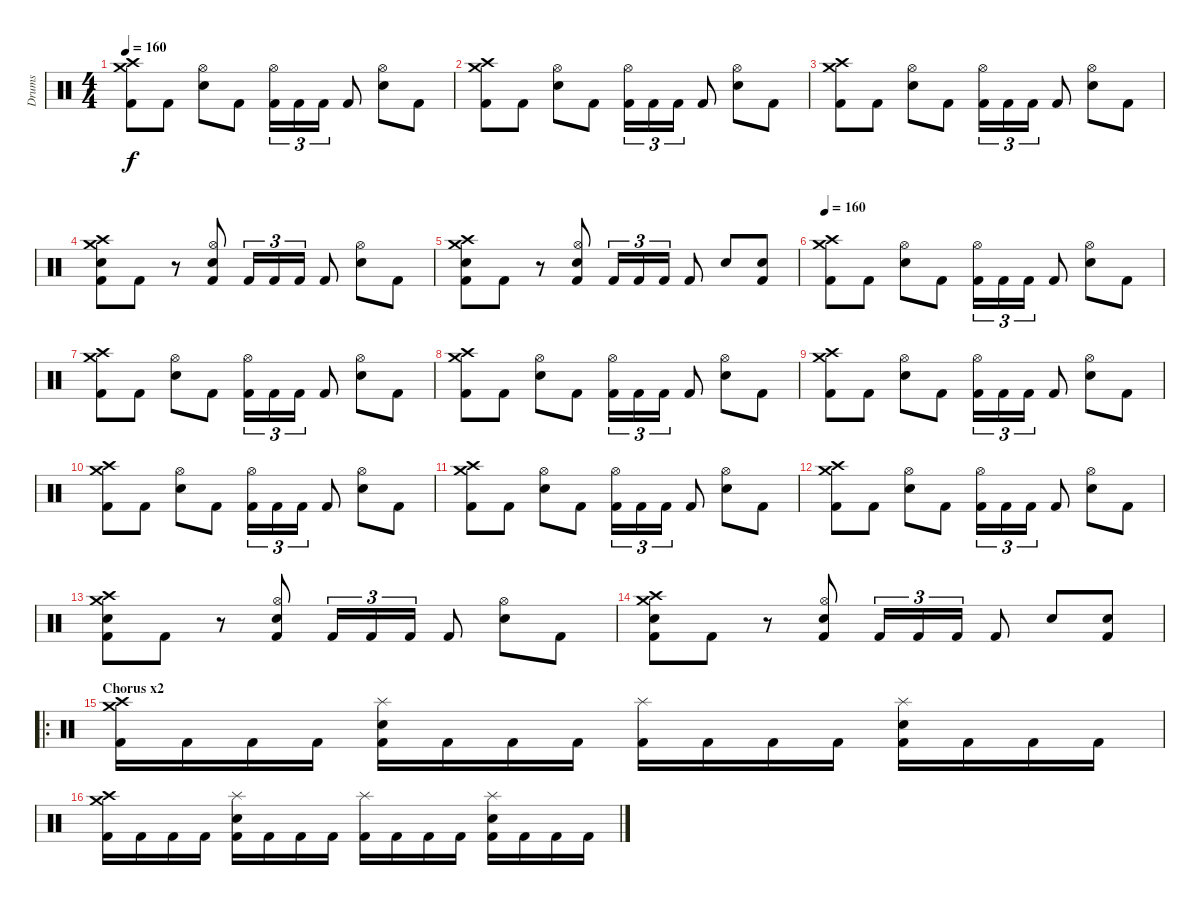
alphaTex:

\track ("Drums" "Drums") {instrument percussion}
\staff {score}
\articulation defaults
\ts (4 4)
\tempo 160
\clef neutral
\ks c
("Crash medium (hit)" "Crash high (hit)" "Kick (hit) 2").8{dy f} "Kick (hit) 2".8 ("Hi-Hat (open)" "Electric Snare (hit)").8 "Kick (hit) 2".8 ("Hi-Hat (open)" "Kick (hit) 2").16{tu (3 2)} "Kick (hit) 2".16{tu (3 2)} "Kick (hit) 2".16{tu (3 2)} "Kick (hit) 2".8 ("Hi-Hat (open)" "Electric Snare (hit)").8 "Kick (hit) 2".8 |
("Crash medium (hit)" "Crash high (hit)" "Kick (hit) 2").8 "Kick (hit) 2".8 ("Hi-Hat (open)" "Electric Snare (hit)").8 "Kick (hit) 2".8 ("Hi-Hat (open)" "Kick (hit) 2").16{tu (3 2)} "Kick (hit) 2".16{tu (3 2)} "Kick (hit) 2".16{tu (3 2)} "Kick (hit) 2".8 ("Hi-Hat (open)" "Electric Snare (hit)").8 "Kick (hit) 2".8 |
("Crash medium (hit)" "Crash high (hit)" "Kick (hit) 2").8 "Kick (hit) 2".8 ("Hi-Hat (open)" "Electric Snare (hit)").8 "Kick (hit) 2".8 ("Hi-Hat (open)" "Kick (hit) 2").16{tu (3 2)} "Kick (hit) 2".16{tu (3 2)} "Kick (hit) 2".16{tu (3 2)} "Kick (hit) 2".8 ("Hi-Hat (open)" "Electric Snare (hit)").8 "Kick (hit) 2".8 |
("Crash medium (hit)" "Crash high (hit)" "Electric Snare (hit)" "Kick (hit) 2").8 "Kick (hit) 2".8 r.8 ("Hi-Hat (open)" "Electric Snare (hit)" "Kick (hit) 2").8 "Kick (hit) 2".16{tu (3 2)} "Kick (hit) 2".16{tu (3 2)} "Kick (hit) 2".16{tu (3 2)} "Kick (hit) 2".8 ("Hi-Hat (open)" "Electric Snare (hit)").8 "Kick (hit) 2".8 |
("Crash medium (hit)" "Crash high (hit)" "Electric Snare (hit)" "Kick (hit) 2").8 "Kick (hit) 2".8 r.8 ("Hi-Hat (open)" "Electric Snare (hit)" "Kick (hit) 2").8 "Kick (hit) 2".16{tu (3 2)} "Kick (hit) 2".16{tu (3 2)} "Kick (hit) 2".16{tu (3 2)} "Kick (hit) 2".8 "Electric Snare (hit)".8 ("Electric Snare (hit)" "Kick (hit) 2").8 |
\tempo 160
("Crash medium (hit)" "Crash high (hit)" "Kick (hit) 2").8 "Kick (hit) 2".8 ("Hi-Hat (open)" "Electric Snare (hit)").8 "Kick (hit) 2".8 ("Hi-Hat (open)" "Kick (hit) 2").16{tu (3 2)} "Kick (hit) 2".16{tu (3 2)} "Kick (hit) 2".16{tu (3 2)} "Kick (hit) 2".8 ("Hi-Hat (open)" "Electric Snare (hit)").8 "Kick (hit) 2".8 |
("Crash medium (hit)" "Crash high (hit)" "Kick (hit) 2").8 "Kick (hit) 2".8 ("Hi-Hat (open)" "Electric Snare (hit)").8 "Kick (hit) 2".8 ("Hi-Hat (open)" "Kick (hit) 2").16{tu (3 2)} "Kick (hit) 2".16{tu (3 2)} "Kick (hit) 2".16{tu (3 2)} "Kick (hit) 2".8 ("Hi-Hat (open)" "Electric Snare (hit)").8 "Kick (hit) 2".8 |
("Crash medium (hit)" "Crash high (hit)" "Kick (hit) 2").8 "Kick (hit) 2".8 ("Hi-Hat (open)" "Electric Snare (hit)").8 "Kick (hit) 2".8 ("Hi-Hat (open)" "Kick (hit) 2").16{tu (3 2)} "Kick (hit) 2".16{tu (3 2)} "Kick (hit) 2".16{tu (3 2)} "Kick (hit) 2".8 ("Hi-Hat (open)" "Electric Snare (hit)").8 "Kick (hit) 2".8 |
("Crash medium (hit)" "Crash high (hit)" "Kick (hit) 2").8 "Kick (hit) 2".8 ("Hi-Hat (open)" "Electric Snare (hit)").8 "Kick (hit) 2".8 ("Hi-Hat (open)" "Kick (hit) 2").16{tu (3 2)} "Kick (hit) 2".16{tu (3 2)} "Kick (hit) 2".16{tu (3 2)} "Kick (hit) 2".8 ("Hi-Hat (open)" "Electric Snare (hit)").8 "Kick (hit) 2".8 |
("Crash medium (hit)" "Crash high (hit)" "Kick (hit) 2").8 "Kick (hit) 2".8 ("Hi-Hat (open)" "Electric Snare (hit)").8 "Kick (hit) 2".8 ("Hi-Hat (open)" "Kick (hit) 2").16{tu (3 2)} "Kick (hit) 2".16{tu (3 2)} "Kick (hit) 2".16{tu (3 2)} "Kick (hit) 2".8 ("Hi-Hat (open)" "Electric Snare (hit)").8 "Kick (hit) 2".8 |
("Crash medium (hit)" "Crash high (hit)" "Kick (hit) 2").8 "Kick (hit) 2".8 ("Hi-Hat (open)" "Electric Snare (hit)").8 "Kick (hit) 2".8 ("Hi-Hat (open)" "Kick (hit) 2").16{tu (3 2)} "Kick (hit) 2".16{tu (3 2)} "Kick (hit) 2".16{tu (3 2)} "Kick (hit) 2".8 ("Hi-Hat (open)" "Electric Snare (hit)").8 "Kick (hit) 2".8 |
("Crash medium (hit)" "Crash high (hit)" "Kick (hit) 2").8 "Kick (hit) 2".8 ("Hi-Hat (open)" "Electric Snare (hit)").8 "Kick (hit) 2".8 ("Hi-Hat (open)" "Kick (hit) 2").16{tu (3 2)} "Kick (hit) 2".16{tu (3 2)} "Kick (hit) 2".16{tu (3 2)} "Kick (hit) 2".8 ("Hi-Hat (open)" "Electric Snare (hit)").8 "Kick (hit) 2".8 |
("Crash medium (hit)" "Crash high (hit)" "Electric Snare (hit)" "Kick (hit) 2").8 "Kick (hit) 2".8 r.8 ("Hi-Hat (open)" "Electric Snare (hit)" "Kick (hit) 2").8 "Kick (hit) 2".16{tu (3 2)} "Kick (hit) 2".16{tu (3 2)} "Kick (hit) 2".16{tu (3 2)} "Kick (hit) 2".8 ("Hi-Hat (open)" "Electric Snare (hit)").8 "Kick (hit) 2".8 |
("Crash medium (hit)" "Crash high (hit)" "Electric Snare (hit)" "Kick (hit) 2").8 "Kick (hit) 2".8 r.8 ("Hi-Hat (open)" "Electric Snare (hit)" "Kick (hit) 2").8 "Kick (hit) 2".16{tu (3 2)} "Kick (hit) 2".16{tu (3 2)} "Kick (hit) 2".16{tu (3 2)} "Kick (hit) 2".8 "Electric Snare (hit)".8 ("Electric Snare (hit)" "Kick (hit) 2").8 |
\ro
\section ("" "Chorus x2")
("Crash medium (hit)" "Crash high (hit)" "Kick (hit) 2").16{volume 16} "Kick (hit) 2".16 "Kick (hit) 2".16 "Kick (hit) 2".16 ("Splash (hit)" "Electric Snare (hit)" "Kick (hit) 2").16 "Kick (hit) 2".16 "Kick (hit) 2".16 "Kick (hit) 2".16 ("Splash (hit)" "Kick (hit) 2").16 "Kick (hit) 2".16 "Kick (hit) 2".16 "Kick (hit) 2".16 ("Splash (hit)" "Electric Snare (hit)" "Kick (hit) 2").16 "Kick (hit) 2".16 "Kick (hit) 2".16 "Kick (hit) 2".16 |
("Crash medium (hit)" "Crash high (hit)" "Kick (hit) 2").16 "Kick (hit) 2".16 "Kick (hit) 2".16 "Kick (hit) 2".16 ("Splash (hit)" "Electric Snare (hit)" "Kick (hit) 2").16 "Kick (hit) 2".16 "Kick (hit) 2".16 "Kick (hit) 2".16 ("Splash (hit)" "Kick (hit) 2").16 "Kick (hit) 2".16 "Kick (hit) 2".16 "Kick (hit) 2".16 ("Splash (hit)" "Electric Snare (hit)" "Kick (hit) 2").16 "Kick (hit) 2".16 "Kick (hit) 2".16 "Kick (hit) 2".16
